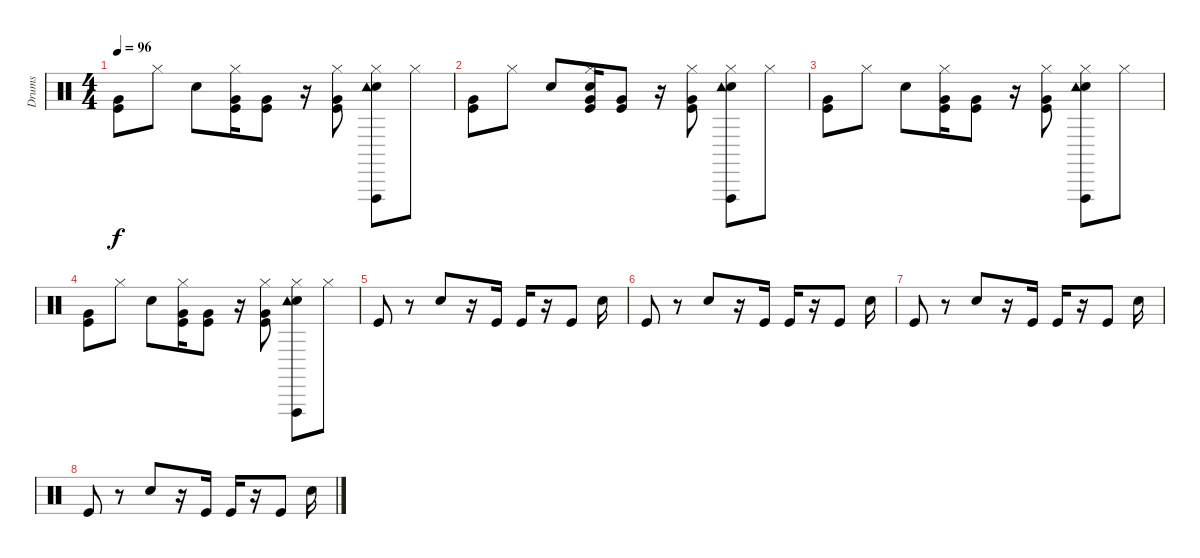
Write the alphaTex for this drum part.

\track ("Drums" "Drums") {instrument percussion}
\staff {score}
\articulation defaults
\ts (4 4)
\tempo 96
\clef neutral
\ks c
("Kick (hit)" "Very Low Tom (hit)").8{dy f} "Hi-Hat (closed)".8 "Snare (hit) 2".8 ("Hi-Hat (closed)" "Kick (hit)" "Very Low Tom (hit)").16 ("Kick (hit)" "Very Low Tom (hit)").8 r.16 ("Hi-Hat (closed)" "Kick (hit)" "Very Low Tom (hit)").8 ("Hi-Hat (closed)" "Vibraslap (hit)" "Snare (hit) 2" "Tambourine (hit)").8 "Hi-Hat (closed)".8 |
("Kick (hit)" "Very Low Tom (hit)").8 "Hi-Hat (closed)".8 "Snare (hit) 2".8 ("Hi-Hat (closed)" "Snare (hit) 2" "Kick (hit)" "Very Low Tom (hit)").16 ("Kick (hit)" "Very Low Tom (hit)").8 r.16 ("Hi-Hat (closed)" "Kick (hit)" "Very Low Tom (hit)").8 ("Hi-Hat (closed)" "Vibraslap (hit)" "Snare (hit) 2" "Tambourine (hit)").8 "Hi-Hat (closed)".8 |
("Kick (hit)" "Very Low Tom (hit)").8 "Hi-Hat (closed)".8 "Snare (hit) 2".8 ("Hi-Hat (closed)" "Kick (hit)" "Very Low Tom (hit)").16 ("Kick (hit)" "Very Low Tom (hit)").8 r.16 ("Hi-Hat (closed)" "Kick (hit)" "Very Low Tom (hit)").8 ("Hi-Hat (closed)" "Vibraslap (hit)" "Snare (hit) 2" "Tambourine (hit)").8 "Hi-Hat (closed)".8 |
("Kick (hit)" "Very Low Tom (hit)").8 "Hi-Hat (closed)".8 "Snare (hit) 2".8 ("Hi-Hat (closed)" "Kick (hit)" "Very Low Tom (hit)").16 ("Kick (hit)" "Very Low Tom (hit)").8 r.16 ("Hi-Hat (closed)" "Kick (hit)" "Very Low Tom (hit)").8 ("Hi-Hat (closed)" "Vibraslap (hit)" "Snare (hit) 2" "Tambourine (hit)").8 "Hi-Hat (closed)".8 |
"Kick (hit)".8 r.8 "Electric Snare (hit)".8 r.16 "Kick (hit)".16 "Kick (hit)".16 r.16 "Kick (hit)".8 "Electric Snare (hit)".16 |
"Kick (hit)".8 r.8 "Electric Snare (hit)".8 r.16 "Kick (hit)".16 "Kick (hit)".16 r.16 "Kick (hit)".8 "Electric Snare (hit)".16 |
"Kick (hit)".8 r.8 "Electric Snare (hit)".8 r.16 "Kick (hit)".16 "Kick (hit)".16 r.16 "Kick (hit)".8 "Electric Snare (hit)".16 |
"Kick (hit)".8 r.8 "Electric Snare (hit)".8 r.16 "Kick (hit)".16 "Kick (hit)".16 r.16 "Kick (hit)".8 "Electric Snare (hit)".16
